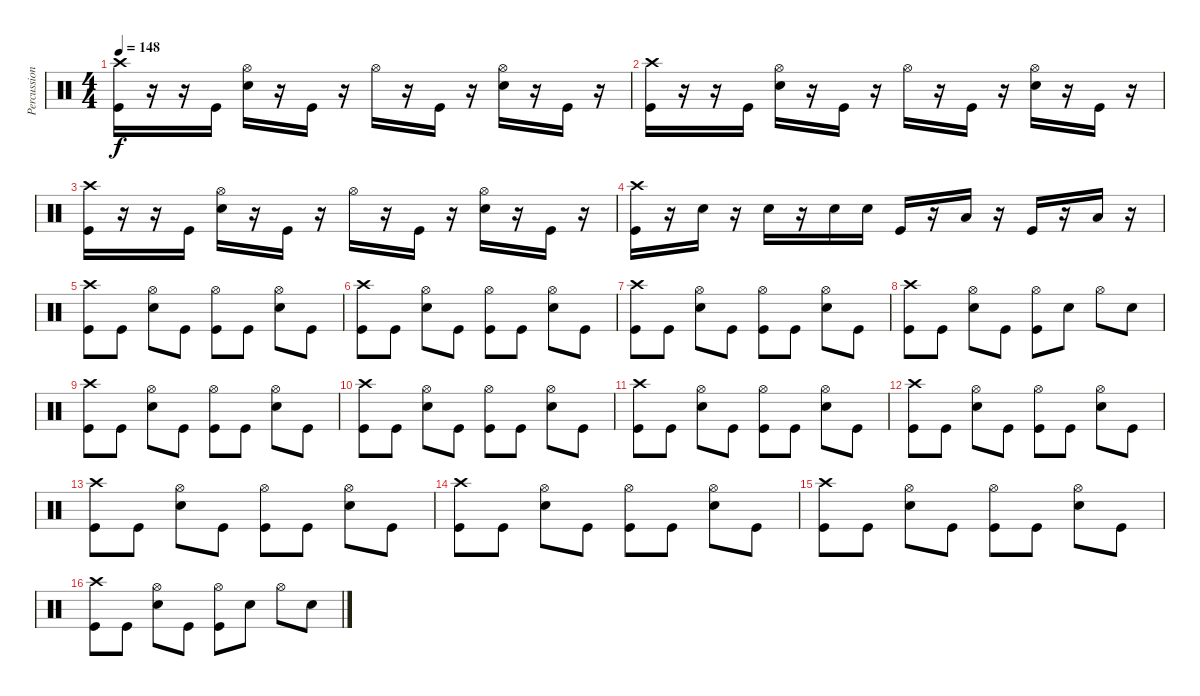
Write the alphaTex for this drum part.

\track ("Percussion" "Percussion") {instrument percussion}
\staff {score}
\articulation defaults
\ts (4 4)
\tempo 148
\clef neutral
\ks c
("Crash high (hit)" "Kick (hit)").16{dy f} r.16 r.16 "Kick (hit)".16 ("Hi-Hat (open)" "Snare (hit) 2").16 r.16 "Kick (hit)".16 r.16 "Hi-Hat (open)".16 r.16 "Kick (hit)".16 r.16 ("Hi-Hat (open)" "Snare (hit) 2").16 r.16 "Kick (hit)".16 r.16 |
("Crash high (hit)" "Kick (hit)").16 r.16 r.16 "Kick (hit)".16 ("Hi-Hat (open)" "Snare (hit) 2").16 r.16 "Kick (hit)".16 r.16 "Hi-Hat (open)".16 r.16 "Kick (hit)".16 r.16 ("Hi-Hat (open)" "Snare (hit) 2").16 r.16 "Kick (hit)".16 r.16 |
("Crash high (hit)" "Kick (hit)").16 r.16 r.16 "Kick (hit)".16 ("Hi-Hat (open)" "Snare (hit) 2").16 r.16 "Kick (hit)".16 r.16 "Hi-Hat (open)".16 r.16 "Kick (hit)".16 r.16 ("Hi-Hat (open)" "Snare (hit) 2").16 r.16 "Kick (hit)".16 r.16 |
("Crash high (hit)" "Kick (hit)").16 r.16 "Snare (hit) 2".16 r.16 "Snare (hit) 2".16 r.16 "Snare (hit) 2".16 "Snare (hit) 2".16 "Kick (hit)".16 r.16 "Low Floor Tom (hit)".16 r.16 "Kick (hit)".16 r.16 "Low Floor Tom (hit)".16 r.16 |
("Crash high (hit)" "Kick (hit)").8 "Kick (hit)".8 ("Hi-Hat (open)" "Snare (hit) 2").8 "Kick (hit)".8 ("Hi-Hat (open)" "Kick (hit)").8 "Kick (hit)".8 ("Hi-Hat (open)" "Snare (hit) 2").8 "Kick (hit)".8 |
("Crash high (hit)" "Kick (hit)").8 "Kick (hit)".8 ("Hi-Hat (open)" "Snare (hit) 2").8 "Kick (hit)".8 ("Hi-Hat (open)" "Kick (hit)").8 "Kick (hit)".8 ("Hi-Hat (open)" "Snare (hit) 2").8 "Kick (hit)".8 |
("Crash high (hit)" "Kick (hit)").8 "Kick (hit)".8 ("Hi-Hat (open)" "Snare (hit) 2").8 "Kick (hit)".8 ("Hi-Hat (open)" "Kick (hit)").8 "Kick (hit)".8 ("Hi-Hat (open)" "Snare (hit) 2").8 "Kick (hit)".8 |
("Crash high (hit)" "Kick (hit)").8 "Kick (hit)".8 ("Hi-Hat (open)" "Snare (hit) 2").8 "Kick (hit)".8 ("Hi-Hat (open)" "Kick (hit)").8 "Snare (hit) 2".8 "Hi-Hat (open)".8 "Snare (hit) 2".8 |
("Crash high (hit)" "Kick (hit)").8 "Kick (hit)".8 ("Hi-Hat (open)" "Snare (hit) 2").8 "Kick (hit)".8 ("Hi-Hat (open)" "Kick (hit)").8 "Kick (hit)".8 ("Hi-Hat (open)" "Snare (hit) 2").8 "Kick (hit)".8 |
("Crash high (hit)" "Kick (hit)").8 "Kick (hit)".8 ("Hi-Hat (open)" "Snare (hit) 2").8 "Kick (hit)".8 ("Hi-Hat (open)" "Kick (hit)").8 "Kick (hit)".8 ("Hi-Hat (open)" "Snare (hit) 2").8 "Kick (hit)".8 |
("Crash high (hit)" "Kick (hit)").8 "Kick (hit)".8 ("Hi-Hat (open)" "Snare (hit) 2").8 "Kick (hit)".8 ("Hi-Hat (open)" "Kick (hit)").8 "Kick (hit)".8 ("Hi-Hat (open)" "Snare (hit) 2").8 "Kick (hit)".8 |
("Crash high (hit)" "Kick (hit)").8 "Kick (hit)".8 ("Hi-Hat (open)" "Snare (hit) 2").8 "Kick (hit)".8 ("Hi-Hat (open)" "Kick (hit)").8 "Kick (hit)".8 ("Hi-Hat (open)" "Snare (hit) 2").8 "Kick (hit)".8 |
("Crash high (hit)" "Kick (hit)").8 "Kick (hit)".8 ("Hi-Hat (open)" "Snare (hit) 2").8 "Kick (hit)".8 ("Hi-Hat (open)" "Kick (hit)").8 "Kick (hit)".8 ("Hi-Hat (open)" "Snare (hit) 2").8 "Kick (hit)".8 |
("Crash high (hit)" "Kick (hit)").8 "Kick (hit)".8 ("Hi-Hat (open)" "Snare (hit) 2").8 "Kick (hit)".8 ("Hi-Hat (open)" "Kick (hit)").8 "Kick (hit)".8 ("Hi-Hat (open)" "Snare (hit) 2").8 "Kick (hit)".8 |
("Crash high (hit)" "Kick (hit)").8 "Kick (hit)".8 ("Hi-Hat (open)" "Snare (hit) 2").8 "Kick (hit)".8 ("Hi-Hat (open)" "Kick (hit)").8 "Kick (hit)".8 ("Hi-Hat (open)" "Snare (hit) 2").8 "Kick (hit)".8 |
("Crash high (hit)" "Kick (hit)").8 "Kick (hit)".8 ("Hi-Hat (open)" "Snare (hit) 2").8 "Kick (hit)".8 ("Hi-Hat (open)" "Kick (hit)").8 "Snare (hit) 2".8 "Hi-Hat (open)".8 "Snare (hit) 2".8
